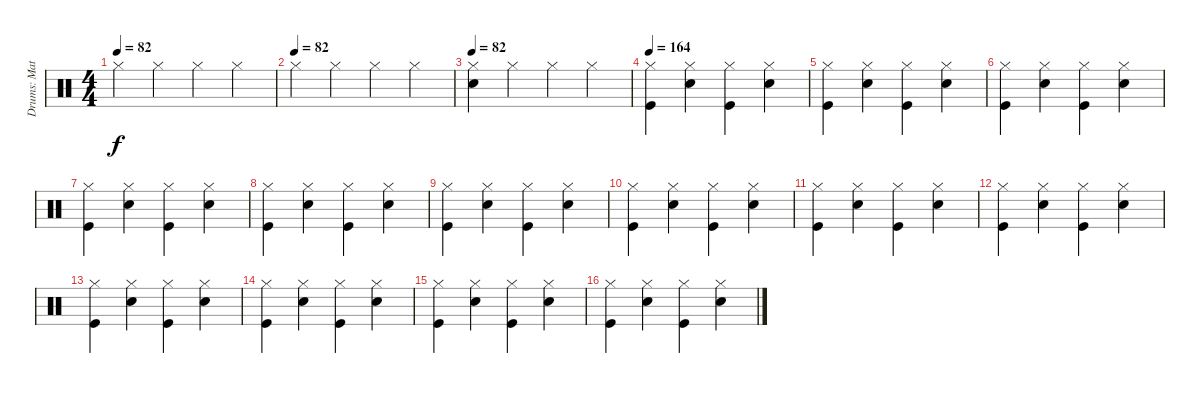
\track ("Drums: Matt" "Drums: Mat") {instrument percussion}
\staff {score}
\articulation defaults
\ts (4 4)
\tempo 82
\clef neutral
\ks c "Hi-Hat (closed)".4{dy f} "Hi-Hat (closed)".4 "Hi-Hat (closed)".4 "Hi-Hat (closed)".4
|
\tempo (82)
"Hi-Hat (closed)".4 "Hi-Hat (closed)".4 "Hi-Hat (closed)".4 "Hi-Hat (closed)".4 |
\tempo 82
("Electric Snare (hit)" "Hi-Hat (closed)").4 "Hi-Hat (closed)".4 "Hi-Hat (closed)".4 "Hi-Hat (closed)".4 |
\tempo 164
("Hi-Hat (closed)" "Kick (hit)").4 ("Hi-Hat (closed)" "Snare (hit) 2").4 ("Hi-Hat (closed)" "Kick (hit)").4 ("Hi-Hat (closed)" "Snare (hit) 2").4 |
("Hi-Hat (closed)" "Kick (hit)").4 ("Hi-Hat (closed)" "Snare (hit) 2").4 ("Hi-Hat (closed)" "Kick (hit)").4 ("Hi-Hat (closed)" "Snare (hit) 2").4 |
("Hi-Hat (closed)" "Kick (hit)").4 ("Hi-Hat (closed)" "Snare (hit) 2").4 ("Hi-Hat (closed)" "Kick (hit)").4 ("Hi-Hat (closed)" "Snare (hit) 2").4 |
("Hi-Hat (closed)" "Kick (hit)").4 ("Hi-Hat (closed)" "Snare (hit) 2").4 ("Hi-Hat (closed)" "Kick (hit)").4 ("Hi-Hat (closed)" "Snare (hit) 2").4 |
("Hi-Hat (closed)" "Kick (hit)").4 ("Hi-Hat (closed)" "Snare (hit) 2").4 ("Hi-Hat (closed)" "Kick (hit)").4 ("Hi-Hat (closed)" "Snare (hit) 2").4 |
("Hi-Hat (closed)" "Kick (hit)").4 ("Hi-Hat (closed)" "Snare (hit) 2").4 ("Hi-Hat (closed)" "Kick (hit)").4 ("Hi-Hat (closed)" "Snare (hit) 2").4 |
("Hi-Hat (closed)" "Kick (hit)").4 ("Hi-Hat (closed)" "Snare (hit) 2").4 ("Hi-Hat (closed)" "Kick (hit)").4 ("Hi-Hat (closed)" "Snare (hit) 2").4 |
("Hi-Hat (closed)" "Kick (hit)").4 ("Hi-Hat (closed)" "Snare (hit) 2").4 ("Hi-Hat (closed)" "Kick (hit)").4 ("Hi-Hat (closed)" "Snare (hit) 2").4 |
("Hi-Hat (closed)" "Kick (hit)").4 ("Hi-Hat (closed)" "Snare (hit) 2").4 ("Hi-Hat (closed)" "Kick (hit)").4 ("Hi-Hat (closed)" "Snare (hit) 2").4 |
("Hi-Hat (closed)" "Kick (hit)").4 ("Hi-Hat (closed)" "Snare (hit) 2").4 ("Hi-Hat (closed)" "Kick (hit)").4 ("Hi-Hat (closed)" "Snare (hit) 2").4 |
("Hi-Hat (closed)" "Kick (hit)").4 ("Hi-Hat (closed)" "Snare (hit) 2").4 ("Hi-Hat (closed)" "Kick (hit)").4 ("Hi-Hat (closed)" "Snare (hit) 2").4 |
("Hi-Hat (closed)" "Kick (hit)").4 ("Hi-Hat (closed)" "Snare (hit) 2").4 ("Hi-Hat (closed)" "Kick (hit)").4 ("Hi-Hat (closed)" "Snare (hit) 2").4 |
("Hi-Hat (closed)" "Kick (hit)").4 ("Hi-Hat (closed)" "Snare (hit) 2").4 ("Hi-Hat (closed)" "Kick (hit)").4 ("Hi-Hat (closed)" "Snare (hit) 2").4
